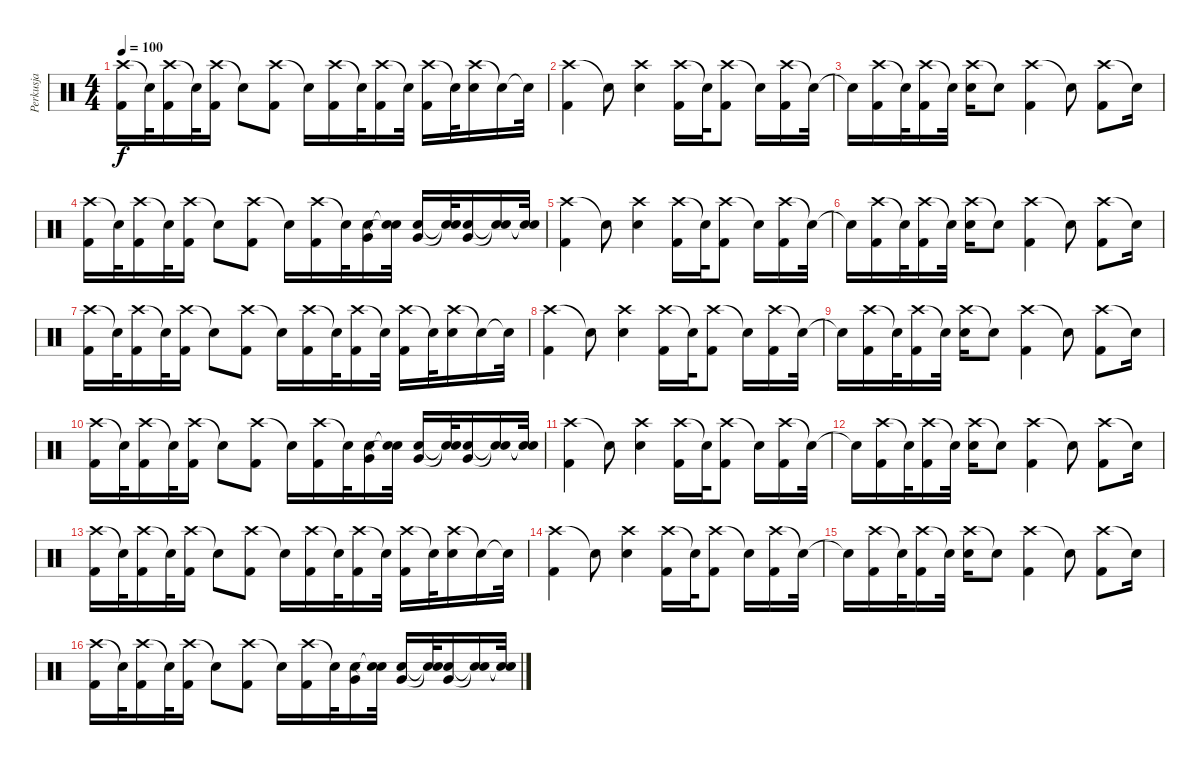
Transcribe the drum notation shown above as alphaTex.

\track ("Perkusja" "Perkusja") {instrument percussion}
\staff {score}
\articulation defaults
\ts (4 4)
\tempo 100
\clef neutral
\ks c
("Crash high (hit)" "Kick (hit) 2").16{dy f} "Snare (hit)"{t}.32 ("Crash high (hit)" "Kick (hit) 2").16 "Snare (hit)"{t}.32 ("Crash high (hit)" "Kick (hit) 2").16 "Snare (hit)"{t}.8 ("Crash high (hit)" "Kick (hit) 2").8 "Snare (hit)"{t}.16 ("Crash high (hit)" "Kick (hit) 2").16 "Snare (hit)"{t}.32 ("Crash high (hit)" "Kick (hit) 2").16 "Snare (hit)"{t}.32 ("Crash high (hit)" "Kick (hit) 2").16 "Snare (hit)"{t}.32 ("Crash high (hit)" "Snare (hit) 2").16 "Snare (hit)"{t}.16 "Snare (hit)"{t}.32 |
("Crash high (hit)" "Kick (hit) 2").4 "Snare (hit)"{t}.8 ("Crash high (hit)" "Snare (hit) 2").4 ("Crash high (hit)" "Kick (hit) 2").16 "Snare (hit)"{t}.32 ("Crash high (hit)" "Kick (hit) 2").8 "Snare (hit)"{t}.16 ("Crash high (hit)" "Kick (hit) 2").16 "Snare (hit)"{t}.32 |
"Snare (hit)"{t}.16 ("Crash high (hit)" "Kick (hit) 2").16 "Snare (hit)"{t}.32 ("Crash high (hit)" "Kick (hit) 2").16 "Snare (hit)"{t}.32 ("Crash high (hit)" "Snare (hit) 2").16 "Snare (hit)"{t}.8 ("Crash high (hit)" "Kick (hit) 2").4 "Snare (hit)"{t}.8 ("Crash high (hit)" "Kick (hit) 2").8 "Snare (hit)"{t}.16 |
("Crash high (hit)" "Kick (hit) 2").16 "Snare (hit)"{t}.32 ("Crash high (hit)" "Kick (hit) 2").16 "Snare (hit)"{t}.32 ("Crash high (hit)" "Kick (hit) 2").16 "Snare (hit)"{t}.8 ("Crash high (hit)" "Kick (hit) 2").8 "Snare (hit)"{t}.16 ("Crash high (hit)" "Kick (hit) 2").16 "Snare (hit)"{t}.32 ("Snare (hit) 2" "Very Low Tom (hit)").16 ("Snare (hit)"{t} "Snare (hit)"{t}).32 ("Snare (hit) 2" "Very Low Tom (hit)").16 ("Snare (hit)"{t} "Snare (hit)"{t}).32 ("Snare (hit) 2" "Very Low Tom (hit)").16 ("Snare (hit)"{t} "Snare (hit)"{t}).16 ("Snare (hit)"{t} "Snare (hit)"{t}).32 |
("Crash high (hit)" "Kick (hit) 2").4 "Snare (hit)"{t}.8 ("Crash high (hit)" "Snare (hit) 2").4 ("Crash high (hit)" "Kick (hit) 2").16 "Snare (hit)"{t}.32 ("Crash high (hit)" "Kick (hit) 2").8 "Snare (hit)"{t}.16 ("Crash high (hit)" "Kick (hit) 2").16 "Snare (hit)"{t}.32 |
"Snare (hit)"{t}.16 ("Crash high (hit)" "Kick (hit) 2").16 "Snare (hit)"{t}.32 ("Crash high (hit)" "Kick (hit) 2").16 "Snare (hit)"{t}.32 ("Crash high (hit)" "Snare (hit) 2").16 "Snare (hit)"{t}.8 ("Crash high (hit)" "Kick (hit) 2").4 "Snare (hit)"{t}.8 ("Crash high (hit)" "Kick (hit) 2").8 "Snare (hit)"{t}.16 |
("Crash high (hit)" "Kick (hit) 2").16 "Snare (hit)"{t}.32 ("Crash high (hit)" "Kick (hit) 2").16 "Snare (hit)"{t}.32 ("Crash high (hit)" "Kick (hit) 2").16 "Snare (hit)"{t}.8 ("Crash high (hit)" "Kick (hit) 2").8 "Snare (hit)"{t}.16 ("Crash high (hit)" "Kick (hit) 2").16 "Snare (hit)"{t}.32 ("Crash high (hit)" "Kick (hit) 2").16 "Snare (hit)"{t}.32 ("Crash high (hit)" "Kick (hit) 2").16 "Snare (hit)"{t}.32 ("Crash high (hit)" "Snare (hit) 2").16 "Snare (hit)"{t}.16 "Snare (hit)"{t}.32 |
("Crash high (hit)" "Kick (hit) 2").4 "Snare (hit)"{t}.8 ("Crash high (hit)" "Snare (hit) 2").4 ("Crash high (hit)" "Kick (hit) 2").16 "Snare (hit)"{t}.32 ("Crash high (hit)" "Kick (hit) 2").8 "Snare (hit)"{t}.16 ("Crash high (hit)" "Kick (hit) 2").16 "Snare (hit)"{t}.32 |
"Snare (hit)"{t}.16 ("Crash high (hit)" "Kick (hit) 2").16 "Snare (hit)"{t}.32 ("Crash high (hit)" "Kick (hit) 2").16 "Snare (hit)"{t}.32 ("Crash high (hit)" "Snare (hit) 2").16 "Snare (hit)"{t}.8 ("Crash high (hit)" "Kick (hit) 2").4 "Snare (hit)"{t}.8 ("Crash high (hit)" "Kick (hit) 2").8 "Snare (hit)"{t}.16 |
("Crash high (hit)" "Kick (hit) 2").16 "Snare (hit)"{t}.32 ("Crash high (hit)" "Kick (hit) 2").16 "Snare (hit)"{t}.32 ("Crash high (hit)" "Kick (hit) 2").16 "Snare (hit)"{t}.8 ("Crash high (hit)" "Kick (hit) 2").8 "Snare (hit)"{t}.16 ("Crash high (hit)" "Kick (hit) 2").16 "Snare (hit)"{t}.32 ("Snare (hit) 2" "Very Low Tom (hit)").16 ("Snare (hit)"{t} "Snare (hit)"{t}).32 ("Snare (hit) 2" "Very Low Tom (hit)").16 ("Snare (hit)"{t} "Snare (hit)"{t}).32 ("Snare (hit) 2" "Very Low Tom (hit)").16 ("Snare (hit)"{t} "Snare (hit)"{t}).16 ("Snare (hit)"{t} "Snare (hit)"{t}).32 |
("Crash high (hit)" "Kick (hit) 2").4 "Snare (hit)"{t}.8 ("Crash high (hit)" "Snare (hit) 2").4 ("Crash high (hit)" "Kick (hit) 2").16 "Snare (hit)"{t}.32 ("Crash high (hit)" "Kick (hit) 2").8 "Snare (hit)"{t}.16 ("Crash high (hit)" "Kick (hit) 2").16 "Snare (hit)"{t}.32 |
"Snare (hit)"{t}.16 ("Crash high (hit)" "Kick (hit) 2").16 "Snare (hit)"{t}.32 ("Crash high (hit)" "Kick (hit) 2").16 "Snare (hit)"{t}.32 ("Crash high (hit)" "Snare (hit) 2").16 "Snare (hit)"{t}.8 ("Crash high (hit)" "Kick (hit) 2").4 "Snare (hit)"{t}.8 ("Crash high (hit)" "Kick (hit) 2").8 "Snare (hit)"{t}.16 |
("Crash high (hit)" "Kick (hit) 2").16 "Snare (hit)"{t}.32 ("Crash high (hit)" "Kick (hit) 2").16 "Snare (hit)"{t}.32 ("Crash high (hit)" "Kick (hit) 2").16 "Snare (hit)"{t}.8 ("Crash high (hit)" "Kick (hit) 2").8 "Snare (hit)"{t}.16 ("Crash high (hit)" "Kick (hit) 2").16 "Snare (hit)"{t}.32 ("Crash high (hit)" "Kick (hit) 2").16 "Snare (hit)"{t}.32 ("Crash high (hit)" "Kick (hit) 2").16 "Snare (hit)"{t}.32 ("Crash high (hit)" "Snare (hit) 2").16 "Snare (hit)"{t}.16 "Snare (hit)"{t}.32 |
("Crash high (hit)" "Kick (hit) 2").4 "Snare (hit)"{t}.8 ("Crash high (hit)" "Snare (hit) 2").4 ("Crash high (hit)" "Kick (hit) 2").16 "Snare (hit)"{t}.32 ("Crash high (hit)" "Kick (hit) 2").8 "Snare (hit)"{t}.16 ("Crash high (hit)" "Kick (hit) 2").16 "Snare (hit)"{t}.32 |
"Snare (hit)"{t}.16 ("Crash high (hit)" "Kick (hit) 2").16 "Snare (hit)"{t}.32 ("Crash high (hit)" "Kick (hit) 2").16 "Snare (hit)"{t}.32 ("Crash high (hit)" "Snare (hit) 2").16 "Snare (hit)"{t}.8 ("Crash high (hit)" "Kick (hit) 2").4 "Snare (hit)"{t}.8 ("Crash high (hit)" "Kick (hit) 2").8 "Snare (hit)"{t}.16 |
("Crash high (hit)" "Kick (hit) 2").16 "Snare (hit)"{t}.32 ("Crash high (hit)" "Kick (hit) 2").16 "Snare (hit)"{t}.32 ("Crash high (hit)" "Kick (hit) 2").16 "Snare (hit)"{t}.8 ("Crash high (hit)" "Kick (hit) 2").8 "Snare (hit)"{t}.16 ("Crash high (hit)" "Kick (hit) 2").16 "Snare (hit)"{t}.32 ("Snare (hit) 2" "Very Low Tom (hit)").16 ("Snare (hit)"{t} "Snare (hit)"{t}).32 ("Snare (hit) 2" "Very Low Tom (hit)").16 ("Snare (hit)"{t} "Snare (hit)"{t}).32 ("Snare (hit) 2" "Very Low Tom (hit)").16 ("Snare (hit)"{t} "Snare (hit)"{t}).16 ("Snare (hit)"{t} "Snare (hit)"{t}).32
